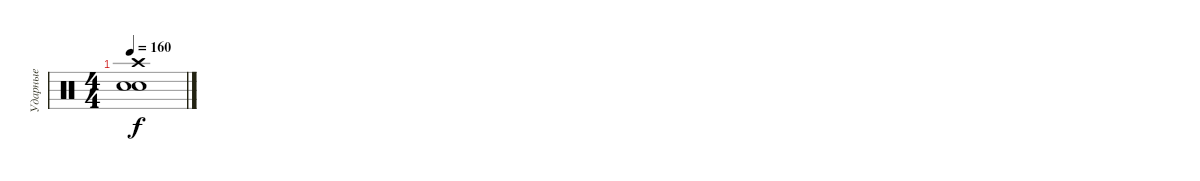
\track ("Ударные" "Ударные") {instrument percussion}
\staff {score}
\articulation defaults
\ts (4 4)
\tempo 160
\clef neutral
\ks c
("Crash high (hit)" "Electric Snare (hit)" "Electric Snare (hit)").1{dy f}
